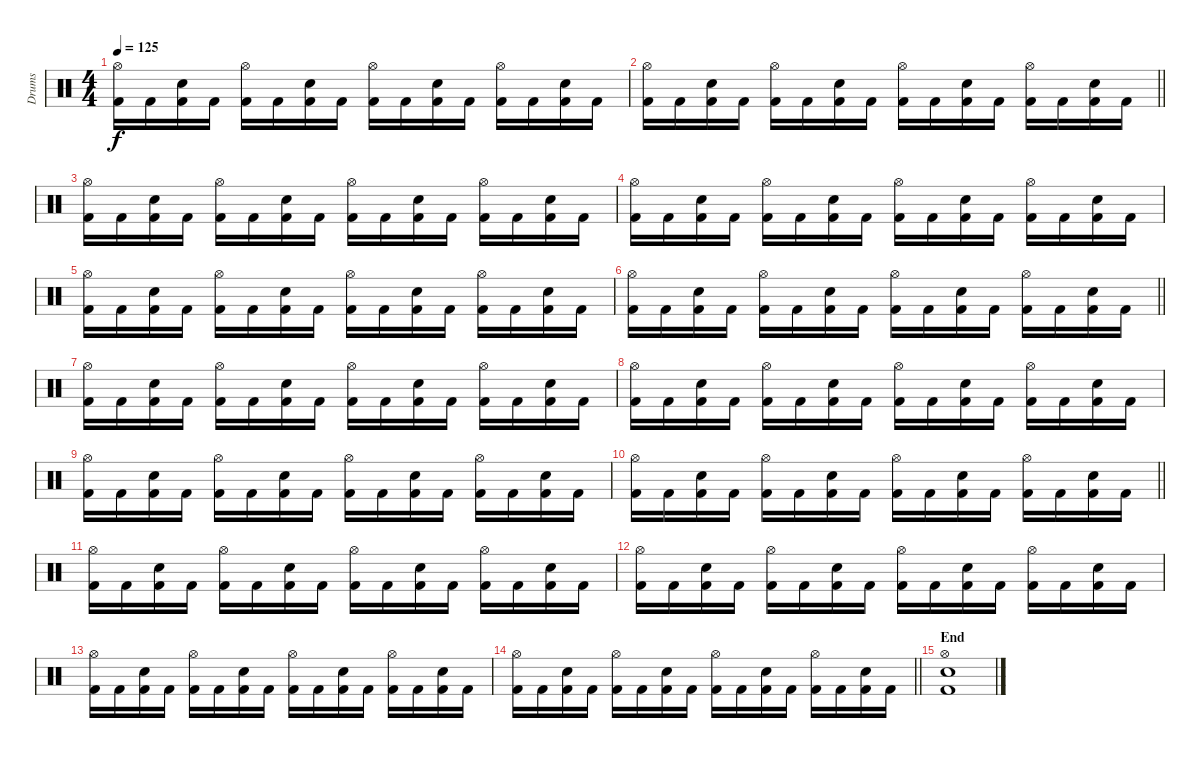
\track ("Drums" "Drums") {instrument percussion}
\staff {score}
\articulation defaults
\ts (4 4)
\tempo 125
\clef neutral
\ks c
("Hi-Hat (open)" "Kick (hit) 2").16{dy f} "Kick (hit) 2".16 ("Snare (hit) 2" "Kick (hit) 2").16 "Kick (hit) 2".16 ("Hi-Hat (open)" "Kick (hit) 2").16 "Kick (hit) 2".16 ("Snare (hit) 2" "Kick (hit) 2").16 "Kick (hit) 2".16 ("Hi-Hat (open)" "Kick (hit) 2").16 "Kick (hit) 2".16 ("Snare (hit) 2" "Kick (hit) 2").16 "Kick (hit) 2".16 ("Hi-Hat (open)" "Kick (hit) 2").16 "Kick (hit) 2".16 ("Snare (hit) 2" "Kick (hit) 2").16 "Kick (hit) 2".16 |
\barLineRight lightlight
("Hi-Hat (open)" "Kick (hit) 2").16 "Kick (hit) 2".16 ("Snare (hit) 2" "Kick (hit) 2").16 "Kick (hit) 2".16 ("Hi-Hat (open)" "Kick (hit) 2").16 "Kick (hit) 2".16 ("Snare (hit) 2" "Kick (hit) 2").16 "Kick (hit) 2".16 ("Hi-Hat (open)" "Kick (hit) 2").16 "Kick (hit) 2".16 ("Snare (hit) 2" "Kick (hit) 2").16 "Kick (hit) 2".16 ("Hi-Hat (open)" "Kick (hit) 2").16 "Kick (hit) 2".16 ("Snare (hit) 2" "Kick (hit) 2").16 "Kick (hit) 2".16 |
("Hi-Hat (open)" "Kick (hit) 2").16 "Kick (hit) 2".16 ("Snare (hit) 2" "Kick (hit) 2").16 "Kick (hit) 2".16 ("Hi-Hat (open)" "Kick (hit) 2").16 "Kick (hit) 2".16 ("Snare (hit) 2" "Kick (hit) 2").16 "Kick (hit) 2".16 ("Hi-Hat (open)" "Kick (hit) 2").16 "Kick (hit) 2".16 ("Snare (hit) 2" "Kick (hit) 2").16 "Kick (hit) 2".16 ("Hi-Hat (open)" "Kick (hit) 2").16 "Kick (hit) 2".16 ("Snare (hit) 2" "Kick (hit) 2").16 "Kick (hit) 2".16 |
("Hi-Hat (open)" "Kick (hit) 2").16 "Kick (hit) 2".16 ("Snare (hit) 2" "Kick (hit) 2").16 "Kick (hit) 2".16 ("Hi-Hat (open)" "Kick (hit) 2").16 "Kick (hit) 2".16 ("Snare (hit) 2" "Kick (hit) 2").16 "Kick (hit) 2".16 ("Hi-Hat (open)" "Kick (hit) 2").16 "Kick (hit) 2".16 ("Snare (hit) 2" "Kick (hit) 2").16 "Kick (hit) 2".16 ("Hi-Hat (open)" "Kick (hit) 2").16 "Kick (hit) 2".16 ("Snare (hit) 2" "Kick (hit) 2").16 "Kick (hit) 2".16 |
("Hi-Hat (open)" "Kick (hit) 2").16 "Kick (hit) 2".16 ("Snare (hit) 2" "Kick (hit) 2").16 "Kick (hit) 2".16 ("Hi-Hat (open)" "Kick (hit) 2").16 "Kick (hit) 2".16 ("Snare (hit) 2" "Kick (hit) 2").16 "Kick (hit) 2".16 ("Hi-Hat (open)" "Kick (hit) 2").16 "Kick (hit) 2".16 ("Snare (hit) 2" "Kick (hit) 2").16 "Kick (hit) 2".16 ("Hi-Hat (open)" "Kick (hit) 2").16 "Kick (hit) 2".16 ("Snare (hit) 2" "Kick (hit) 2").16 "Kick (hit) 2".16 |
\barLineRight lightlight
("Hi-Hat (open)" "Kick (hit) 2").16 "Kick (hit) 2".16 ("Snare (hit) 2" "Kick (hit) 2").16 "Kick (hit) 2".16 ("Hi-Hat (open)" "Kick (hit) 2").16 "Kick (hit) 2".16 ("Snare (hit) 2" "Kick (hit) 2").16 "Kick (hit) 2".16 ("Hi-Hat (open)" "Kick (hit) 2").16 "Kick (hit) 2".16 ("Snare (hit) 2" "Kick (hit) 2").16 "Kick (hit) 2".16 ("Hi-Hat (open)" "Kick (hit) 2").16 "Kick (hit) 2".16 ("Snare (hit) 2" "Kick (hit) 2").16 "Kick (hit) 2".16 |
("Hi-Hat (open)" "Kick (hit) 2").16 "Kick (hit) 2".16 ("Snare (hit) 2" "Kick (hit) 2").16 "Kick (hit) 2".16 ("Hi-Hat (open)" "Kick (hit) 2").16 "Kick (hit) 2".16 ("Snare (hit) 2" "Kick (hit) 2").16 "Kick (hit) 2".16 ("Hi-Hat (open)" "Kick (hit) 2").16 "Kick (hit) 2".16 ("Snare (hit) 2" "Kick (hit) 2").16 "Kick (hit) 2".16 ("Hi-Hat (open)" "Kick (hit) 2").16 "Kick (hit) 2".16 ("Snare (hit) 2" "Kick (hit) 2").16 "Kick (hit) 2".16 |
("Hi-Hat (open)" "Kick (hit) 2").16 "Kick (hit) 2".16 ("Snare (hit) 2" "Kick (hit) 2").16 "Kick (hit) 2".16 ("Hi-Hat (open)" "Kick (hit) 2").16 "Kick (hit) 2".16 ("Snare (hit) 2" "Kick (hit) 2").16 "Kick (hit) 2".16 ("Hi-Hat (open)" "Kick (hit) 2").16 "Kick (hit) 2".16 ("Snare (hit) 2" "Kick (hit) 2").16 "Kick (hit) 2".16 ("Hi-Hat (open)" "Kick (hit) 2").16 "Kick (hit) 2".16 ("Snare (hit) 2" "Kick (hit) 2").16 "Kick (hit) 2".16 |
("Hi-Hat (open)" "Kick (hit) 2").16 "Kick (hit) 2".16 ("Snare (hit) 2" "Kick (hit) 2").16 "Kick (hit) 2".16 ("Hi-Hat (open)" "Kick (hit) 2").16 "Kick (hit) 2".16 ("Snare (hit) 2" "Kick (hit) 2").16 "Kick (hit) 2".16 ("Hi-Hat (open)" "Kick (hit) 2").16 "Kick (hit) 2".16 ("Snare (hit) 2" "Kick (hit) 2").16 "Kick (hit) 2".16 ("Hi-Hat (open)" "Kick (hit) 2").16 "Kick (hit) 2".16 ("Snare (hit) 2" "Kick (hit) 2").16 "Kick (hit) 2".16 |
\barLineRight lightlight
("Hi-Hat (open)" "Kick (hit) 2").16 "Kick (hit) 2".16 ("Snare (hit) 2" "Kick (hit) 2").16 "Kick (hit) 2".16 ("Hi-Hat (open)" "Kick (hit) 2").16 "Kick (hit) 2".16 ("Snare (hit) 2" "Kick (hit) 2").16 "Kick (hit) 2".16 ("Hi-Hat (open)" "Kick (hit) 2").16 "Kick (hit) 2".16 ("Snare (hit) 2" "Kick (hit) 2").16 "Kick (hit) 2".16 ("Hi-Hat (open)" "Kick (hit) 2").16 "Kick (hit) 2".16 ("Snare (hit) 2" "Kick (hit) 2").16 "Kick (hit) 2".16 |
("Hi-Hat (open)" "Kick (hit) 2").16 "Kick (hit) 2".16 ("Snare (hit) 2" "Kick (hit) 2").16 "Kick (hit) 2".16 ("Hi-Hat (open)" "Kick (hit) 2").16 "Kick (hit) 2".16 ("Snare (hit) 2" "Kick (hit) 2").16 "Kick (hit) 2".16 ("Hi-Hat (open)" "Kick (hit) 2").16 "Kick (hit) 2".16 ("Snare (hit) 2" "Kick (hit) 2").16 "Kick (hit) 2".16 ("Hi-Hat (open)" "Kick (hit) 2").16 "Kick (hit) 2".16 ("Snare (hit) 2" "Kick (hit) 2").16 "Kick (hit) 2".16 |
("Hi-Hat (open)" "Kick (hit) 2").16 "Kick (hit) 2".16 ("Snare (hit) 2" "Kick (hit) 2").16 "Kick (hit) 2".16 ("Hi-Hat (open)" "Kick (hit) 2").16 "Kick (hit) 2".16 ("Snare (hit) 2" "Kick (hit) 2").16 "Kick (hit) 2".16 ("Hi-Hat (open)" "Kick (hit) 2").16 "Kick (hit) 2".16 ("Snare (hit) 2" "Kick (hit) 2").16 "Kick (hit) 2".16 ("Hi-Hat (open)" "Kick (hit) 2").16 "Kick (hit) 2".16 ("Snare (hit) 2" "Kick (hit) 2").16 "Kick (hit) 2".16 |
("Hi-Hat (open)" "Kick (hit) 2").16 "Kick (hit) 2".16 ("Snare (hit) 2" "Kick (hit) 2").16 "Kick (hit) 2".16 ("Hi-Hat (open)" "Kick (hit) 2").16 "Kick (hit) 2".16 ("Snare (hit) 2" "Kick (hit) 2").16 "Kick (hit) 2".16 ("Hi-Hat (open)" "Kick (hit) 2").16 "Kick (hit) 2".16 ("Snare (hit) 2" "Kick (hit) 2").16 "Kick (hit) 2".16 ("Hi-Hat (open)" "Kick (hit) 2").16 "Kick (hit) 2".16 ("Snare (hit) 2" "Kick (hit) 2").16 "Kick (hit) 2".16 |
\barLineRight lightlight
("Hi-Hat (open)" "Kick (hit) 2").16 "Kick (hit) 2".16 ("Snare (hit) 2" "Kick (hit) 2").16 "Kick (hit) 2".16 ("Hi-Hat (open)" "Kick (hit) 2").16 "Kick (hit) 2".16 ("Snare (hit) 2" "Kick (hit) 2").16 "Kick (hit) 2".16 ("Hi-Hat (open)" "Kick (hit) 2").16 "Kick (hit) 2".16 ("Snare (hit) 2" "Kick (hit) 2").16 "Kick (hit) 2".16 ("Hi-Hat (open)" "Kick (hit) 2").16 "Kick (hit) 2".16 ("Snare (hit) 2" "Kick (hit) 2").16 "Kick (hit) 2".16 |
\section ("" "End")
("Hi-Hat (open)" "Snare (hit) 2" "Kick (hit) 2").1
